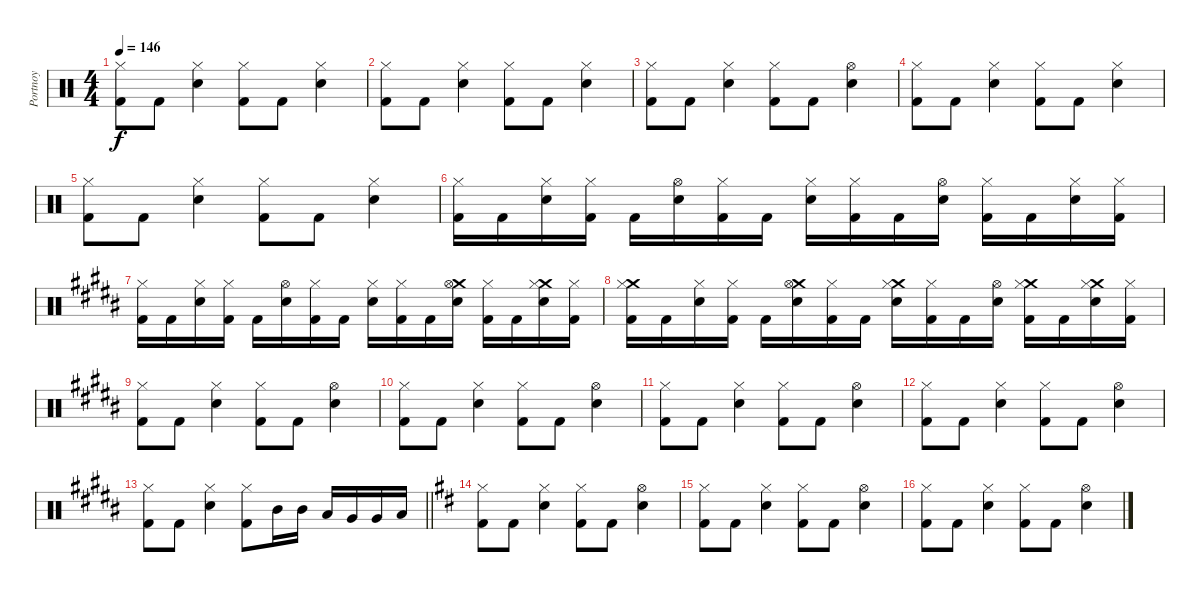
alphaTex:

\track ("Portnoy" "Portnoy") {instrument percussion}
\staff {score}
\articulation defaults
\ts (4 4)
\tempo 146
\clef neutral
\ks c
("Hi-Hat (closed)" "Kick (hit) 2").8{dy f} "Kick (hit) 2".8 ("Hi-Hat (closed)" "Electric Snare (hit)").4 ("Hi-Hat (closed)" "Kick (hit) 2").8 "Kick (hit) 2".8 ("Hi-Hat (closed)" "Electric Snare (hit)").4 |
("Hi-Hat (closed)" "Kick (hit) 2").8 "Kick (hit) 2".8 ("Hi-Hat (closed)" "Electric Snare (hit)").4 ("Hi-Hat (closed)" "Kick (hit) 2").8 "Kick (hit) 2".8 ("Hi-Hat (closed)" "Electric Snare (hit)").4 |
("Hi-Hat (closed)" "Kick (hit) 2").8 "Kick (hit) 2".8 ("Hi-Hat (closed)" "Electric Snare (hit)").4 ("Hi-Hat (closed)" "Kick (hit) 2").8 "Kick (hit) 2".8 ("Hi-Hat (open)" "Electric Snare (hit)").4 |
("Hi-Hat (closed)" "Kick (hit) 2").8 "Kick (hit) 2".8 ("Hi-Hat (closed)" "Electric Snare (hit)").4 ("Hi-Hat (closed)" "Kick (hit) 2").8 "Kick (hit) 2".8 ("Hi-Hat (closed)" "Electric Snare (hit)").4 |
("Hi-Hat (closed)" "Kick (hit) 2").8 "Kick (hit) 2".8 ("Hi-Hat (closed)" "Electric Snare (hit)").4 ("Hi-Hat (closed)" "Kick (hit) 2").8 "Kick (hit) 2".8 ("Hi-Hat (closed)" "Electric Snare (hit)").4 |
("Hi-Hat (closed)" "Kick (hit) 2").16 "Kick (hit) 2".16 ("Hi-Hat (closed)" "Electric Snare (hit)").16 ("Hi-Hat (closed)" "Kick (hit) 2").16 "Kick (hit) 2".16 ("Hi-Hat (open)" "Electric Snare (hit)").16 ("Hi-Hat (closed)" "Kick (hit) 2").16 "Kick (hit) 2".16 ("Hi-Hat (closed)" "Electric Snare (hit)").16 ("Hi-Hat (closed)" "Kick (hit) 2").16 "Kick (hit) 2".16 ("Hi-Hat (open)" "Electric Snare (hit)").16 ("Hi-Hat (closed)" "Kick (hit) 2").16 "Kick (hit) 2".16 ("Hi-Hat (closed)" "Electric Snare (hit)").16 ("Hi-Hat (closed)" "Kick (hit) 2").16 |
\ks g#minor
("Hi-Hat (closed)" "Kick (hit) 2").16 "Kick (hit) 2".16 ("Hi-Hat (closed)" "Electric Snare (hit)").16 ("Hi-Hat (closed)" "Kick (hit) 2").16 "Kick (hit) 2".16 ("Hi-Hat (open)" "Electric Snare (hit)").16 ("Hi-Hat (closed)" "Kick (hit) 2").16 "Kick (hit) 2".16 ("Hi-Hat (closed)" "Electric Snare (hit)").16 ("Hi-Hat (closed)" "Kick (hit) 2").16 "Kick (hit) 2".16 ("Crash medium (hit)" "Hi-Hat (open)" "Electric Snare (hit)").16 ("Hi-Hat (closed)" "Kick (hit) 2").16 "Kick (hit) 2".16 ("Crash medium (hit)" "Hi-Hat (closed)" "Electric Snare (hit)").16 ("Hi-Hat (closed)" "Kick (hit) 2").16 |
("Crash medium (hit)" "Hi-Hat (closed)" "Kick (hit) 2").16 "Kick (hit) 2".16 ("Hi-Hat (closed)" "Electric Snare (hit)").16 ("Hi-Hat (closed)" "Kick (hit) 2").16 "Kick (hit) 2".16 ("Crash medium (hit)" "Hi-Hat (open)" "Electric Snare (hit)").16 ("Hi-Hat (closed)" "Kick (hit) 2").16 "Kick (hit) 2".16 ("Crash medium (hit)" "Hi-Hat (closed)" "Electric Snare (hit)").16 ("Hi-Hat (closed)" "Kick (hit) 2").16 "Kick (hit) 2".16 ("Hi-Hat (open)" "Electric Snare (hit)").16 ("Crash medium (hit)" "Hi-Hat (closed)" "Kick (hit) 2").16 "Kick (hit) 2".16 ("Crash medium (hit)" "Hi-Hat (closed)" "Electric Snare (hit)").16 ("Hi-Hat (closed)" "Kick (hit) 2").16 |
\ks b
("Hi-Hat (closed)" "Kick (hit) 2").8 "Kick (hit) 2".8 ("Hi-Hat (closed)" "Electric Snare (hit)").4 ("Hi-Hat (closed)" "Kick (hit) 2").8 "Kick (hit) 2".8 ("Hi-Hat (open)" "Electric Snare (hit)").4 |
\ks g#minor
("Hi-Hat (closed)" "Kick (hit) 2").8 "Kick (hit) 2".8 ("Hi-Hat (closed)" "Electric Snare (hit)").4 ("Hi-Hat (closed)" "Kick (hit) 2").8 "Kick (hit) 2".8 ("Hi-Hat (open)" "Electric Snare (hit)").4 |
\ks b
("Hi-Hat (closed)" "Kick (hit) 2").8 "Kick (hit) 2".8 ("Hi-Hat (closed)" "Electric Snare (hit)").4 ("Hi-Hat (closed)" "Kick (hit) 2").8 "Kick (hit) 2".8 ("Hi-Hat (open)" "Electric Snare (hit)").4 |
\ks g#minor
("Hi-Hat (closed)" "Kick (hit) 2").8 "Kick (hit) 2".8 ("Hi-Hat (closed)" "Electric Snare (hit)").4 ("Hi-Hat (closed)" "Kick (hit) 2").8 "Kick (hit) 2".8 ("Hi-Hat (open)" "Electric Snare (hit)").4 |
\barLineRight lightlight
\ks b
("Hi-Hat (closed)" "Kick (hit) 2").8 "Kick (hit) 2".8 ("Hi-Hat (closed)" "Electric Snare (hit)").4 ("Hi-Hat (closed)" "Kick (hit) 2").8 "Mid Tom (hit)".16 "Mid Tom (hit)".16 "Low Tom (hit)".16 "Very Low Tom (hit)".16 "Very Low Tom (hit)".16 "Low Floor Tom (hit)".16 |
\ks d
("Hi-Hat (closed)" "Kick (hit) 2").8 "Kick (hit) 2".8 ("Hi-Hat (closed)" "Electric Snare (hit)").4 ("Hi-Hat (closed)" "Kick (hit) 2").8 "Kick (hit) 2".8 ("Hi-Hat (open)" "Electric Snare (hit)").4 |
("Hi-Hat (closed)" "Kick (hit) 2").8 "Kick (hit) 2".8 ("Hi-Hat (closed)" "Electric Snare (hit)").4 ("Hi-Hat (closed)" "Kick (hit) 2").8 "Kick (hit) 2".8 ("Hi-Hat (open)" "Electric Snare (hit)").4 |
("Hi-Hat (closed)" "Kick (hit) 2").8 "Kick (hit) 2".8 ("Hi-Hat (closed)" "Electric Snare (hit)").4 ("Hi-Hat (closed)" "Kick (hit) 2").8 "Kick (hit) 2".8 ("Hi-Hat (open)" "Electric Snare (hit)").4
